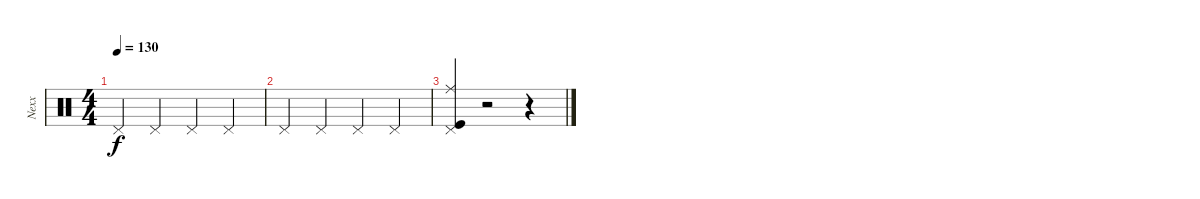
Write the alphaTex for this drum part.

\track ("Nexx" "Nexx") {instrument percussion}
\staff {score}
\articulation defaults
\ts (4 4)
\tempo 130
\clef neutral
\ks c "Pedal Hi-Hat (hit)".4{dy f} "Pedal Hi-Hat (hit)".4 "Pedal Hi-Hat (hit)".4 "Pedal Hi-Hat (hit)".4
|
"Pedal Hi-Hat (hit)".4 "Pedal Hi-Hat (hit)".4 "Pedal Hi-Hat (hit)".4 "Pedal Hi-Hat (hit)".4 |
("Kick (hit)" "Pedal Hi-Hat (hit)" "Ride (middle)").4 r.2 r.4
